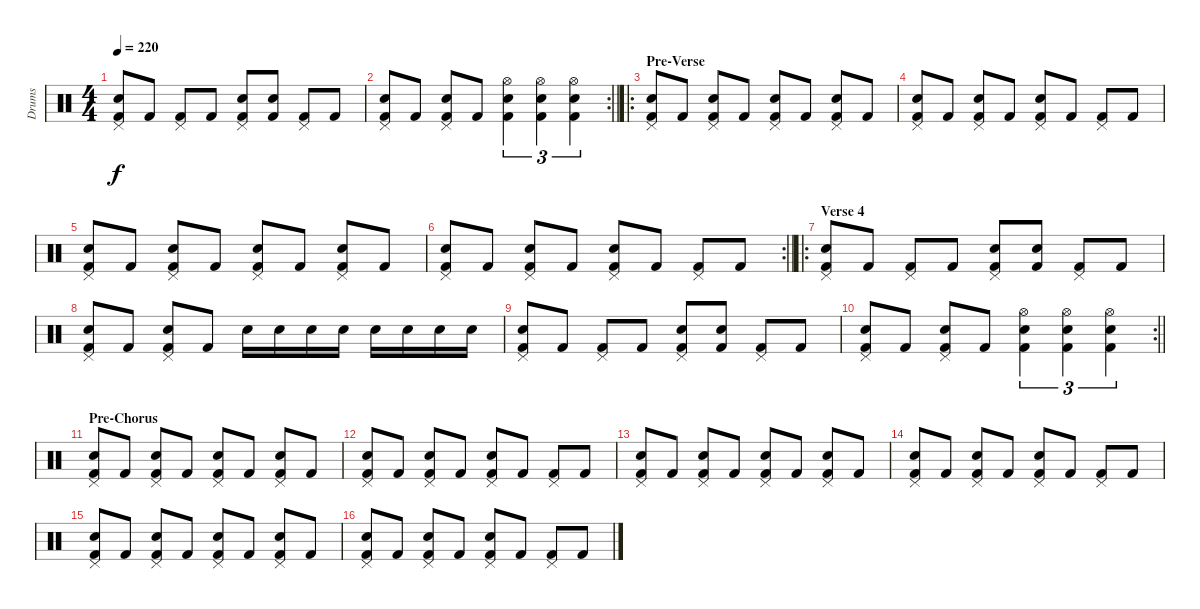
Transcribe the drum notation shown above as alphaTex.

\track ("Drums" "Drums") {instrument percussion}
\staff {score}
\articulation defaults
\ts (4 4)
\tempo 220
\clef neutral
\ks c
("Pedal Hi-Hat (hit)" "Snare (hit) 2" "Kick (hit) 2").8{dy f} "Kick (hit) 2".8 ("Pedal Hi-Hat (hit)" "Kick (hit) 2").8 "Kick (hit) 2".8 ("Pedal Hi-Hat (hit)" "Snare (hit) 2" "Kick (hit) 2").8 ("Snare (hit) 2" "Kick (hit) 2").8 ("Pedal Hi-Hat (hit)" "Kick (hit) 2").8 "Kick (hit) 2".8 |
\rc 2
\barLineRight lightlight
("Pedal Hi-Hat (hit)" "Snare (hit) 2" "Kick (hit) 2").8 "Kick (hit) 2".8 ("Pedal Hi-Hat (hit)" "Snare (hit) 2" "Kick (hit) 2").8 "Kick (hit) 2".8 ("Hi-Hat (open)" "Snare (hit) 2" "Kick (hit) 2").4{tu (3 2)} ("Hi-Hat (open)" "Snare (hit) 2" "Kick (hit) 2").4{tu (3 2)} ("Hi-Hat (open)" "Snare (hit) 2" "Kick (hit) 2").4{tu (3 2)} |
\ro
\section ("" "Pre-Verse")
("Pedal Hi-Hat (hit)" "Snare (hit) 2" "Kick (hit) 2").8 "Kick (hit) 2".8 ("Pedal Hi-Hat (hit)" "Snare (hit) 2" "Kick (hit) 2").8 "Kick (hit) 2".8 ("Pedal Hi-Hat (hit)" "Snare (hit) 2" "Kick (hit) 2").8 "Kick (hit) 2".8 ("Pedal Hi-Hat (hit)" "Snare (hit) 2" "Kick (hit) 2").8 "Kick (hit) 2".8 |
("Pedal Hi-Hat (hit)" "Snare (hit) 2" "Kick (hit) 2").8 "Kick (hit) 2".8 ("Pedal Hi-Hat (hit)" "Snare (hit) 2" "Kick (hit) 2").8 "Kick (hit) 2".8 ("Pedal Hi-Hat (hit)" "Snare (hit) 2" "Kick (hit) 2").8 "Kick (hit) 2".8 ("Pedal Hi-Hat (hit)" "Kick (hit) 2").8 "Kick (hit) 2".8 |
("Pedal Hi-Hat (hit)" "Snare (hit) 2" "Kick (hit) 2").8 "Kick (hit) 2".8 ("Pedal Hi-Hat (hit)" "Snare (hit) 2" "Kick (hit) 2").8 "Kick (hit) 2".8 ("Pedal Hi-Hat (hit)" "Snare (hit) 2" "Kick (hit) 2").8 "Kick (hit) 2".8 ("Pedal Hi-Hat (hit)" "Snare (hit) 2" "Kick (hit) 2").8 "Kick (hit) 2".8 |
\rc 2
\barLineRight lightlight
("Pedal Hi-Hat (hit)" "Snare (hit) 2" "Kick (hit) 2").8 "Kick (hit) 2".8 ("Pedal Hi-Hat (hit)" "Snare (hit) 2" "Kick (hit) 2").8 "Kick (hit) 2".8 ("Pedal Hi-Hat (hit)" "Snare (hit) 2" "Kick (hit) 2").8 "Kick (hit) 2".8 ("Pedal Hi-Hat (hit)" "Kick (hit) 2").8 "Kick (hit) 2".8 |
\ro
\section ("" "Verse 4")
("Pedal Hi-Hat (hit)" "Snare (hit) 2" "Kick (hit) 2").8 "Kick (hit) 2".8 ("Pedal Hi-Hat (hit)" "Kick (hit) 2").8 "Kick (hit) 2".8 ("Pedal Hi-Hat (hit)" "Snare (hit) 2" "Kick (hit) 2").8 ("Snare (hit) 2" "Kick (hit) 2").8 ("Pedal Hi-Hat (hit)" "Kick (hit) 2").8 "Kick (hit) 2".8 |
("Pedal Hi-Hat (hit)" "Snare (hit) 2" "Kick (hit) 2").8 "Kick (hit) 2".8 ("Pedal Hi-Hat (hit)" "Snare (hit) 2" "Kick (hit) 2").8 "Kick (hit) 2".8 "Snare (hit) 2".16 "Snare (hit) 2".16 "Snare (hit) 2".16 "Snare (hit) 2".16 "Snare (hit) 2".16 "Snare (hit) 2".16 "Snare (hit) 2".16 "Snare (hit) 2".16 |
("Pedal Hi-Hat (hit)" "Snare (hit) 2" "Kick (hit) 2").8 "Kick (hit) 2".8 ("Pedal Hi-Hat (hit)" "Kick (hit) 2").8 "Kick (hit) 2".8 ("Pedal Hi-Hat (hit)" "Snare (hit) 2" "Kick (hit) 2").8 ("Snare (hit) 2" "Kick (hit) 2").8 ("Pedal Hi-Hat (hit)" "Kick (hit) 2").8 "Kick (hit) 2".8 |
\rc 2
\barLineRight lightlight
("Pedal Hi-Hat (hit)" "Snare (hit) 2" "Kick (hit) 2").8 "Kick (hit) 2".8 ("Pedal Hi-Hat (hit)" "Snare (hit) 2" "Kick (hit) 2").8 "Kick (hit) 2".8 ("Hi-Hat (open)" "Snare (hit) 2" "Kick (hit) 2").4{tu (3 2)} ("Hi-Hat (open)" "Snare (hit) 2" "Kick (hit) 2").4{tu (3 2)} ("Hi-Hat (open)" "Snare (hit) 2" "Kick (hit) 2").4{tu (3 2)} |
\section ("" "Pre-Chorus")
("Pedal Hi-Hat (hit)" "Snare (hit) 2" "Kick (hit) 2").8 "Kick (hit) 2".8 ("Pedal Hi-Hat (hit)" "Snare (hit) 2" "Kick (hit) 2").8 "Kick (hit) 2".8 ("Pedal Hi-Hat (hit)" "Snare (hit) 2" "Kick (hit) 2").8 "Kick (hit) 2".8 ("Pedal Hi-Hat (hit)" "Snare (hit) 2" "Kick (hit) 2").8 "Kick (hit) 2".8 |
("Pedal Hi-Hat (hit)" "Snare (hit) 2" "Kick (hit) 2").8 "Kick (hit) 2".8 ("Pedal Hi-Hat (hit)" "Snare (hit) 2" "Kick (hit) 2").8 "Kick (hit) 2".8 ("Pedal Hi-Hat (hit)" "Snare (hit) 2" "Kick (hit) 2").8 "Kick (hit) 2".8 ("Pedal Hi-Hat (hit)" "Kick (hit) 2").8 "Kick (hit) 2".8 |
("Pedal Hi-Hat (hit)" "Snare (hit) 2" "Kick (hit) 2").8 "Kick (hit) 2".8 ("Pedal Hi-Hat (hit)" "Snare (hit) 2" "Kick (hit) 2").8 "Kick (hit) 2".8 ("Pedal Hi-Hat (hit)" "Snare (hit) 2" "Kick (hit) 2").8 "Kick (hit) 2".8 ("Pedal Hi-Hat (hit)" "Snare (hit) 2" "Kick (hit) 2").8 "Kick (hit) 2".8 |
("Pedal Hi-Hat (hit)" "Snare (hit) 2" "Kick (hit) 2").8 "Kick (hit) 2".8 ("Pedal Hi-Hat (hit)" "Snare (hit) 2" "Kick (hit) 2").8 "Kick (hit) 2".8 ("Pedal Hi-Hat (hit)" "Snare (hit) 2" "Kick (hit) 2").8 "Kick (hit) 2".8 ("Pedal Hi-Hat (hit)" "Kick (hit) 2").8 "Kick (hit) 2".8 |
("Pedal Hi-Hat (hit)" "Snare (hit) 2" "Kick (hit) 2").8 "Kick (hit) 2".8 ("Pedal Hi-Hat (hit)" "Snare (hit) 2" "Kick (hit) 2").8 "Kick (hit) 2".8 ("Pedal Hi-Hat (hit)" "Snare (hit) 2" "Kick (hit) 2").8 "Kick (hit) 2".8 ("Pedal Hi-Hat (hit)" "Snare (hit) 2" "Kick (hit) 2").8 "Kick (hit) 2".8 |
("Pedal Hi-Hat (hit)" "Snare (hit) 2" "Kick (hit) 2").8 "Kick (hit) 2".8 ("Pedal Hi-Hat (hit)" "Snare (hit) 2" "Kick (hit) 2").8 "Kick (hit) 2".8 ("Pedal Hi-Hat (hit)" "Snare (hit) 2" "Kick (hit) 2").8 "Kick (hit) 2".8 ("Pedal Hi-Hat (hit)" "Kick (hit) 2").8 "Kick (hit) 2".8
